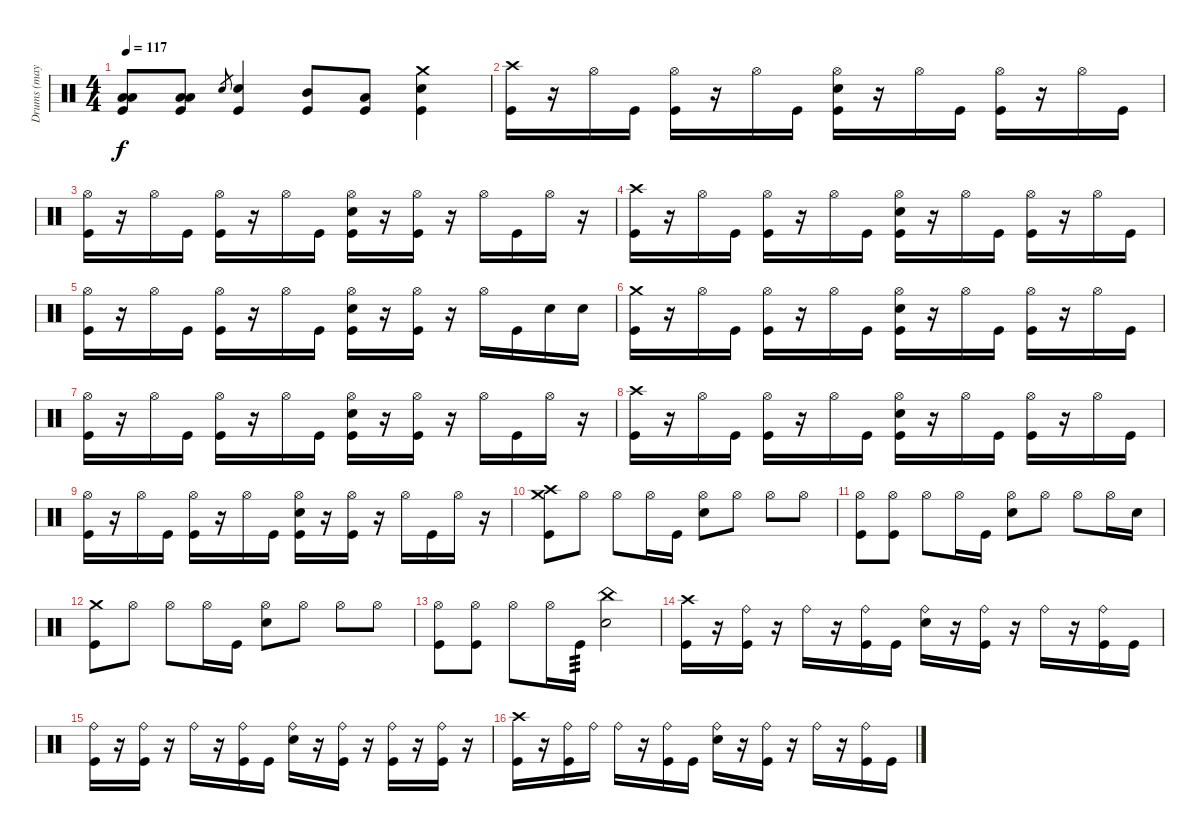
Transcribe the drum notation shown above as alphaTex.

\track ("Drums (maybe electrical, too)" "Drums (may") {instrument percussion}
\staff {score}
\articulation defaults
\ts (4 4)
\tempo 117
\clef neutral
\ks c
("Low Tom (hit)" "Low Floor Tom (hit)" "Kick (hit)").8{dy f} ("Low Tom (hit)" "Low Floor Tom (hit)" "Kick (hit)").8 "Electric Snare (hit)".8{gr} ("Electric Snare (hit)" "Kick (hit)").4 ("Mid Tom (hit)" "Kick (hit)").8 ("Low Tom (hit)" "Kick (hit)").8 ("Crash medium (hit)" "Electric Snare (hit)" "Kick (hit)").4 |
\section ("" "")
("Crash high (hit)" "Kick (hit)").16 r.16 "Hi-Hat (open)".16 "Kick (hit)".16 ("Hi-Hat (open)" "Kick (hit)").16 r.16 "Hi-Hat (open)".16 "Kick (hit)".16 ("Hi-Hat (open)" "Electric Snare (hit)" "Kick (hit)").16 r.16 "Hi-Hat (open)".16 "Kick (hit)".16 ("Hi-Hat (open)" "Kick (hit)").16 r.16 "Hi-Hat (open)".16 "Kick (hit)".16 |
("Hi-Hat (open)" "Kick (hit)").16 r.16 "Hi-Hat (open)".16 "Kick (hit)".16 ("Hi-Hat (open)" "Kick (hit)").16 r.16 "Hi-Hat (open)".16 "Kick (hit)".16 ("Hi-Hat (open)" "Electric Snare (hit)" "Kick (hit)").16 r.16 ("Hi-Hat (open)" "Kick (hit)").16 r.16 "Hi-Hat (open)".16 "Kick (hit)".16 "Hi-Hat (open)".16 r.16 |
("Crash high (hit)" "Kick (hit)").16 r.16 "Hi-Hat (open)".16 "Kick (hit)".16 ("Hi-Hat (open)" "Kick (hit)").16 r.16 "Hi-Hat (open)".16 "Kick (hit)".16 ("Hi-Hat (open)" "Electric Snare (hit)" "Kick (hit)").16 r.16 "Hi-Hat (open)".16 "Kick (hit)".16 ("Hi-Hat (open)" "Kick (hit)").16 r.16 "Hi-Hat (open)".16 "Kick (hit)".16 |
("Hi-Hat (open)" "Kick (hit)").16 r.16 "Hi-Hat (open)".16 "Kick (hit)".16 ("Hi-Hat (open)" "Kick (hit)").16 r.16 "Hi-Hat (open)".16 "Kick (hit)".16 ("Hi-Hat (open)" "Electric Snare (hit)" "Kick (hit)").16 r.16 ("Hi-Hat (open)" "Kick (hit)").16 r.16 "Hi-Hat (open)".16 "Kick (hit)".16 "Electric Snare (hit)".16 "Electric Snare (hit)".16 |
("Crash medium (hit)" "Kick (hit)").16 r.16 "Hi-Hat (open)".16 "Kick (hit)".16 ("Hi-Hat (open)" "Kick (hit)").16 r.16 "Hi-Hat (open)".16 "Kick (hit)".16 ("Hi-Hat (open)" "Electric Snare (hit)" "Kick (hit)").16 r.16 "Hi-Hat (open)".16 "Kick (hit)".16 ("Hi-Hat (open)" "Kick (hit)").16 r.16 "Hi-Hat (open)".16 "Kick (hit)".16 |
("Hi-Hat (open)" "Kick (hit)").16 r.16 "Hi-Hat (open)".16 "Kick (hit)".16 ("Hi-Hat (open)" "Kick (hit)").16 r.16 "Hi-Hat (open)".16 "Kick (hit)".16 ("Hi-Hat (open)" "Electric Snare (hit)" "Kick (hit)").16 r.16 ("Hi-Hat (open)" "Kick (hit)").16 r.16 "Hi-Hat (open)".16 "Kick (hit)".16 "Hi-Hat (open)".16 r.16 |
("Crash high (hit)" "Kick (hit)").16 r.16 "Hi-Hat (open)".16 "Kick (hit)".16 ("Hi-Hat (open)" "Kick (hit)").16 r.16 "Hi-Hat (open)".16 "Kick (hit)".16 ("Hi-Hat (open)" "Electric Snare (hit)" "Kick (hit)").16 r.16 "Hi-Hat (open)".16 "Kick (hit)".16 ("Hi-Hat (open)" "Kick (hit)").16 r.16 "Hi-Hat (open)".16 "Kick (hit)".16 |
("Hi-Hat (open)" "Kick (hit)").16 r.16 "Hi-Hat (open)".16 "Kick (hit)".16 ("Hi-Hat (open)" "Kick (hit)").16 r.16 "Hi-Hat (open)".16 "Kick (hit)".16 ("Hi-Hat (open)" "Electric Snare (hit)" "Kick (hit)").16 r.16 ("Hi-Hat (open)" "Kick (hit)").16 r.16 "Hi-Hat (open)".16 "Kick (hit)".16 "Hi-Hat (open)".16 r.16 |
("Crash high (hit)" "Crash medium (hit)" "Kick (hit)").8 "Hi-Hat (open)".8 "Hi-Hat (open)".8 "Hi-Hat (open)".16 "Kick (hit)".16 ("Hi-Hat (open)" "Electric Snare (hit)").8 "Hi-Hat (open)".8 "Hi-Hat (open)".8 "Hi-Hat (open)".8 |
("Hi-Hat (open)" "Kick (hit)").8 ("Hi-Hat (open)" "Kick (hit)").8 "Hi-Hat (open)".8 "Hi-Hat (open)".16 "Kick (hit)".16 ("Hi-Hat (open)" "Electric Snare (hit)").8 "Hi-Hat (open)".8 "Hi-Hat (open)".8 "Hi-Hat (open)".16 "Electric Snare (hit)".16 |
("Crash medium (hit)" "Kick (hit)").8 "Hi-Hat (open)".8 "Hi-Hat (open)".8 "Hi-Hat (open)".16 "Kick (hit)".16 ("Hi-Hat (open)" "Electric Snare (hit)").8 "Hi-Hat (open)".8 "Hi-Hat (open)".8 "Hi-Hat (open)".8 |
("Hi-Hat (open)" "Kick (hit)").8 ("Hi-Hat (open)" "Kick (hit)").8 "Hi-Hat (open)".8 "Hi-Hat (open)".16 "Kick (hit)".16{tp 3} ("China (hit)" "Electric Snare (hit)").2 |
\section ("" "")
("Crash high (hit)" "Kick (hit)").16 r.16 ("Ride (bell)" "Kick (hit)").16 r.16 "Ride (bell)".16 r.16 ("Ride (bell)" "Kick (hit)").16 "Kick (hit)".16 ("Ride (bell)" "Electric Snare (hit)").16 r.16 ("Ride (bell)" "Kick (hit)").16 r.16 "Ride (bell)".16 r.16 ("Ride (bell)" "Kick (hit)").16 "Kick (hit)".16 |
("Ride (bell)" "Kick (hit)").16 r.16 ("Ride (bell)" "Kick (hit)").16 r.16 "Ride (bell)".16 r.16 ("Ride (bell)" "Kick (hit)").16 "Kick (hit)".16 ("Ride (bell)" "Electric Snare (hit)").16 r.16 ("Ride (bell)" "Kick (hit)").16 r.16 ("Ride (bell)" "Kick (hit)").16 r.16 ("Ride (bell)" "Kick (hit)").16 r.16 |
("Crash high (hit)" "Kick (hit)").16 r.16 ("Ride (bell)" "Kick (hit)").16 "Ride (bell)".16 "Ride (bell)".16 r.16 ("Ride (bell)" "Kick (hit)").16 "Kick (hit)".16 ("Ride (bell)" "Electric Snare (hit)").16 r.16 ("Ride (bell)" "Kick (hit)").16 r.16 "Ride (bell)".16 r.16 ("Ride (bell)" "Kick (hit)").16 "Kick (hit)".16
